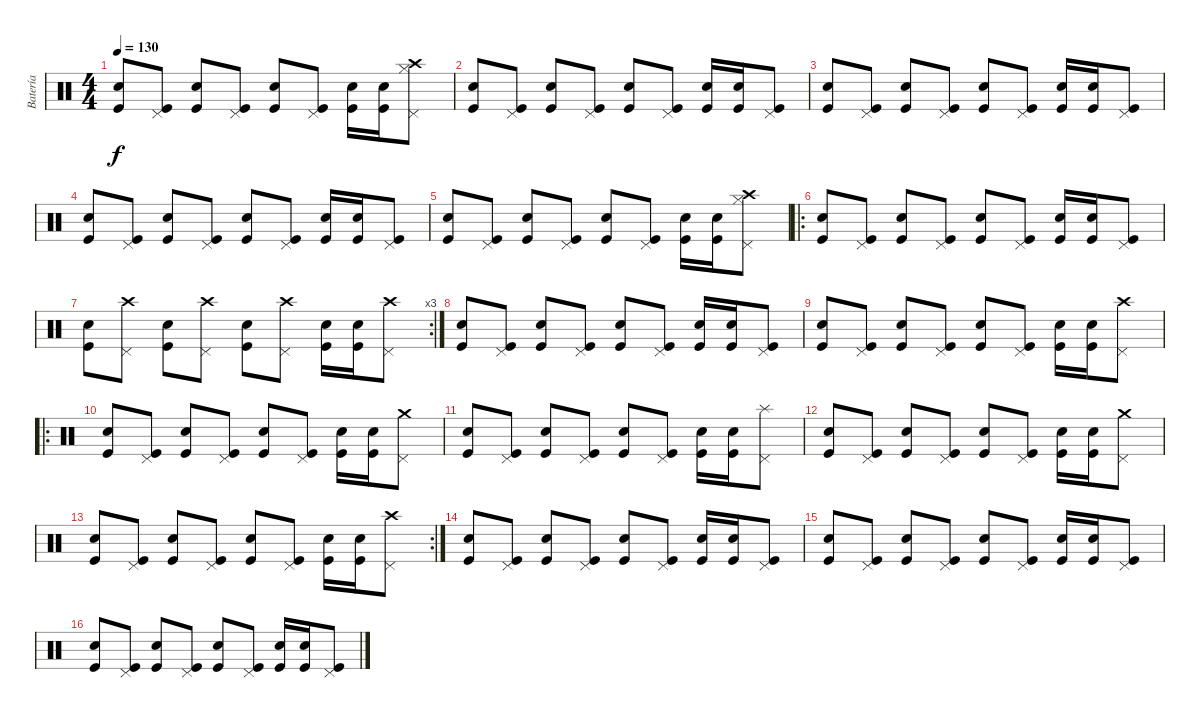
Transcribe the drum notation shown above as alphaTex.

\track ("Batería" "Batería") {instrument percussion}
\staff {score}
\articulation defaults
\ts (4 4)
\tempo 130
\clef neutral
\ks c
("Kick (hit)" "Electric Snare (hit)").8{dy f} ("Kick (hit)" "Pedal Hi-Hat (hit)").8 ("Kick (hit)" "Electric Snare (hit)").8 ("Kick (hit)" "Pedal Hi-Hat (hit)").8 ("Kick (hit)" "Electric Snare (hit)").8 ("Kick (hit)" "Pedal Hi-Hat (hit)").8 ("Kick (hit)" "Electric Snare (hit)").16 ("Kick (hit)" "Electric Snare (hit)").16 ("Crash high (hit)" "Hi-Hat (closed)" "Pedal Hi-Hat (hit)").8 |
("Kick (hit)" "Electric Snare (hit)").8 ("Kick (hit)" "Pedal Hi-Hat (hit)").8 ("Kick (hit)" "Electric Snare (hit)").8 ("Kick (hit)" "Pedal Hi-Hat (hit)").8 ("Kick (hit)" "Electric Snare (hit)").8 ("Kick (hit)" "Pedal Hi-Hat (hit)").8 ("Kick (hit)" "Electric Snare (hit)").16 ("Kick (hit)" "Electric Snare (hit)").16 ("Kick (hit)" "Pedal Hi-Hat (hit)").8 |
("Kick (hit)" "Electric Snare (hit)").8 ("Kick (hit)" "Pedal Hi-Hat (hit)").8 ("Kick (hit)" "Electric Snare (hit)").8 ("Kick (hit)" "Pedal Hi-Hat (hit)").8 ("Kick (hit)" "Electric Snare (hit)").8 ("Kick (hit)" "Pedal Hi-Hat (hit)").8 ("Kick (hit)" "Electric Snare (hit)").16 ("Kick (hit)" "Electric Snare (hit)").16 ("Kick (hit)" "Pedal Hi-Hat (hit)").8 |
("Kick (hit)" "Electric Snare (hit)").8 ("Kick (hit)" "Pedal Hi-Hat (hit)").8 ("Kick (hit)" "Electric Snare (hit)").8 ("Kick (hit)" "Pedal Hi-Hat (hit)").8 ("Kick (hit)" "Electric Snare (hit)").8 ("Kick (hit)" "Pedal Hi-Hat (hit)").8 ("Kick (hit)" "Electric Snare (hit)").16 ("Kick (hit)" "Electric Snare (hit)").16 ("Kick (hit)" "Pedal Hi-Hat (hit)").8 |
("Kick (hit)" "Electric Snare (hit)").8 ("Kick (hit)" "Pedal Hi-Hat (hit)").8 ("Kick (hit)" "Electric Snare (hit)").8 ("Kick (hit)" "Pedal Hi-Hat (hit)").8 ("Kick (hit)" "Electric Snare (hit)").8 ("Kick (hit)" "Pedal Hi-Hat (hit)").8 ("Kick (hit)" "Electric Snare (hit)").16 ("Kick (hit)" "Electric Snare (hit)").16 ("Crash high (hit)" "Hi-Hat (closed)" "Pedal Hi-Hat (hit)").8 |
\ro
("Kick (hit)" "Electric Snare (hit)").8 ("Kick (hit)" "Pedal Hi-Hat (hit)").8 ("Kick (hit)" "Electric Snare (hit)").8 ("Kick (hit)" "Pedal Hi-Hat (hit)").8 ("Kick (hit)" "Electric Snare (hit)").8 ("Kick (hit)" "Pedal Hi-Hat (hit)").8 ("Kick (hit)" "Electric Snare (hit)").16 ("Kick (hit)" "Electric Snare (hit)").16 ("Kick (hit)" "Pedal Hi-Hat (hit)").8 |
\rc 3
("Kick (hit)" "Electric Snare (hit)").8 ("Crash high (hit)" "Pedal Hi-Hat (hit)").8 ("Kick (hit)" "Electric Snare (hit)").8 ("Crash high (hit)" "Pedal Hi-Hat (hit)").8 ("Kick (hit)" "Electric Snare (hit)").8 ("Crash high (hit)" "Pedal Hi-Hat (hit)").8 ("Kick (hit)" "Electric Snare (hit)").16 ("Kick (hit)" "Electric Snare (hit)").16 ("Crash high (hit)" "Pedal Hi-Hat (hit)").8 |
("Kick (hit)" "Electric Snare (hit)").8 ("Kick (hit)" "Pedal Hi-Hat (hit)").8 ("Kick (hit)" "Electric Snare (hit)").8 ("Kick (hit)" "Pedal Hi-Hat (hit)").8 ("Kick (hit)" "Electric Snare (hit)").8 ("Kick (hit)" "Pedal Hi-Hat (hit)").8 ("Kick (hit)" "Electric Snare (hit)").16 ("Kick (hit)" "Electric Snare (hit)").16 ("Kick (hit)" "Pedal Hi-Hat (hit)").8 |
("Kick (hit)" "Electric Snare (hit)").8 ("Kick (hit)" "Pedal Hi-Hat (hit)").8 ("Kick (hit)" "Electric Snare (hit)").8 ("Kick (hit)" "Pedal Hi-Hat (hit)").8 ("Kick (hit)" "Electric Snare (hit)").8 ("Kick (hit)" "Pedal Hi-Hat (hit)").8 ("Kick (hit)" "Electric Snare (hit)").16 ("Kick (hit)" "Electric Snare (hit)").16 ("Crash high (hit)" "Pedal Hi-Hat (hit)").8 |
\ro
("Kick (hit)" "Electric Snare (hit)").8 ("Kick (hit)" "Pedal Hi-Hat (hit)").8 ("Kick (hit)" "Electric Snare (hit)").8 ("Kick (hit)" "Pedal Hi-Hat (hit)").8 ("Kick (hit)" "Electric Snare (hit)").8 ("Kick (hit)" "Pedal Hi-Hat (hit)").8 ("Kick (hit)" "Electric Snare (hit)").16 ("Kick (hit)" "Electric Snare (hit)").16 ("Crash medium (hit)" "Pedal Hi-Hat (hit)").8 |
("Kick (hit)" "Electric Snare (hit)").8 ("Kick (hit)" "Pedal Hi-Hat (hit)").8 ("Kick (hit)" "Electric Snare (hit)").8 ("Kick (hit)" "Pedal Hi-Hat (hit)").8 ("Kick (hit)" "Electric Snare (hit)").8 ("Kick (hit)" "Pedal Hi-Hat (hit)").8 ("Kick (hit)" "Electric Snare (hit)").16 ("Kick (hit)" "Electric Snare (hit)").16 ("Splash (hit)" "Pedal Hi-Hat (hit)").8 |
("Kick (hit)" "Electric Snare (hit)").8 ("Kick (hit)" "Pedal Hi-Hat (hit)").8 ("Kick (hit)" "Electric Snare (hit)").8 ("Kick (hit)" "Pedal Hi-Hat (hit)").8 ("Kick (hit)" "Electric Snare (hit)").8 ("Kick (hit)" "Pedal Hi-Hat (hit)").8 ("Kick (hit)" "Electric Snare (hit)").16 ("Kick (hit)" "Electric Snare (hit)").16 ("Crash medium (hit)" "Pedal Hi-Hat (hit)").8 |
\rc 2
("Kick (hit)" "Electric Snare (hit)").8 ("Kick (hit)" "Pedal Hi-Hat (hit)").8 ("Kick (hit)" "Electric Snare (hit)").8 ("Kick (hit)" "Pedal Hi-Hat (hit)").8 ("Kick (hit)" "Electric Snare (hit)").8 ("Kick (hit)" "Pedal Hi-Hat (hit)").8 ("Kick (hit)" "Electric Snare (hit)").16 ("Kick (hit)" "Electric Snare (hit)").16 ("Crash high (hit)" "Pedal Hi-Hat (hit)").8 |
("Kick (hit)" "Electric Snare (hit)").8 ("Kick (hit)" "Pedal Hi-Hat (hit)").8 ("Kick (hit)" "Electric Snare (hit)").8 ("Kick (hit)" "Pedal Hi-Hat (hit)").8 ("Kick (hit)" "Electric Snare (hit)").8 ("Kick (hit)" "Pedal Hi-Hat (hit)").8 ("Kick (hit)" "Electric Snare (hit)").16 ("Kick (hit)" "Electric Snare (hit)").16 ("Kick (hit)" "Pedal Hi-Hat (hit)").8 |
("Kick (hit)" "Electric Snare (hit)").8 ("Kick (hit)" "Pedal Hi-Hat (hit)").8 ("Kick (hit)" "Electric Snare (hit)").8 ("Kick (hit)" "Pedal Hi-Hat (hit)").8 ("Kick (hit)" "Electric Snare (hit)").8 ("Kick (hit)" "Pedal Hi-Hat (hit)").8 ("Kick (hit)" "Electric Snare (hit)").16 ("Kick (hit)" "Electric Snare (hit)").16 ("Kick (hit)" "Pedal Hi-Hat (hit)").8 |
("Kick (hit)" "Electric Snare (hit)").8 ("Kick (hit)" "Pedal Hi-Hat (hit)").8 ("Kick (hit)" "Electric Snare (hit)").8 ("Kick (hit)" "Pedal Hi-Hat (hit)").8 ("Kick (hit)" "Electric Snare (hit)").8 ("Kick (hit)" "Pedal Hi-Hat (hit)").8 ("Kick (hit)" "Electric Snare (hit)").16 ("Kick (hit)" "Electric Snare (hit)").16 ("Kick (hit)" "Pedal Hi-Hat (hit)").8
